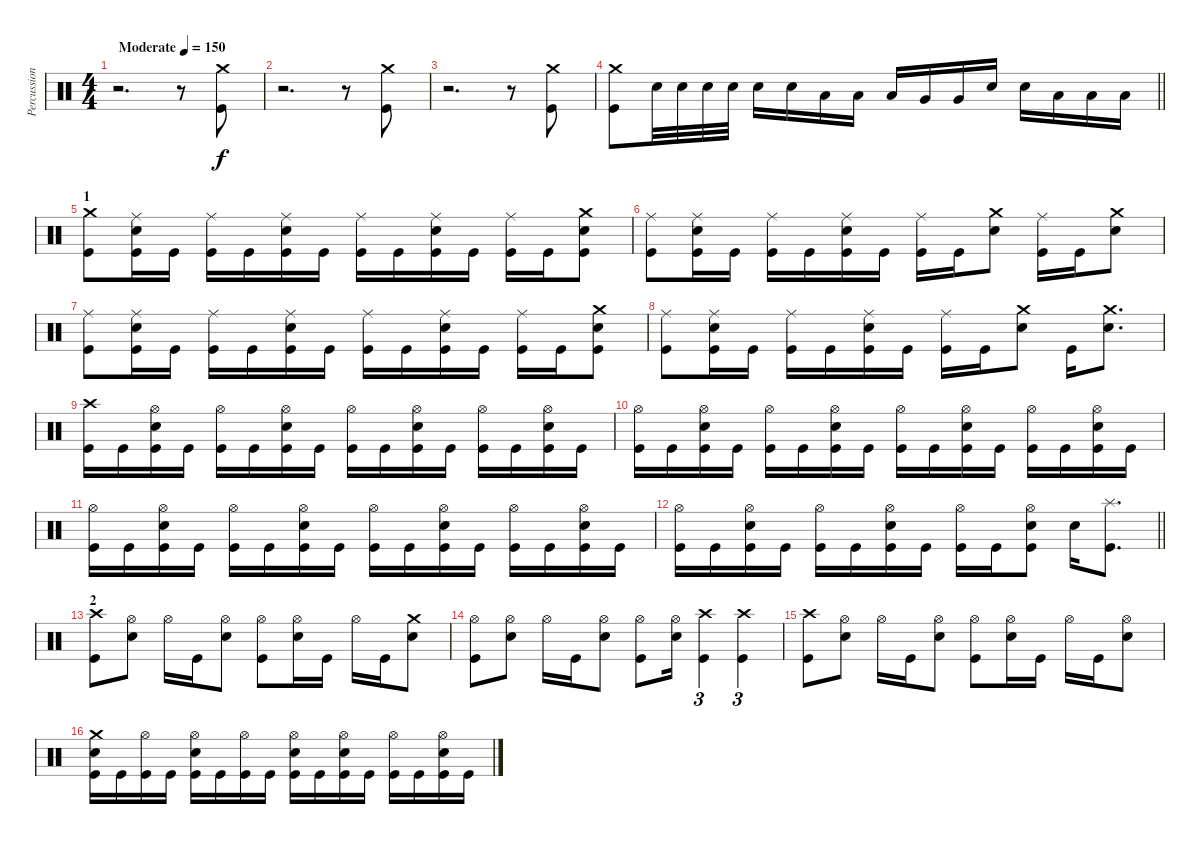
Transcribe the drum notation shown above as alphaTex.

\track ("Percussion" "Percussion") {instrument percussion}
\staff {score}
\articulation defaults
\ts (4 4)
\tempo (150 "Moderate")
\clef neutral
\ks c
r.2{d dy f} r.8 ("Crash medium (hit)" "Kick (hit)").8 |
r.2{d} r.8 ("Crash medium (hit)" "Kick (hit)").8 |
r.2{d} r.8 ("Crash medium (hit)" "Kick (hit)").8 |
\barLineRight lightlight
("Crash medium (hit)" "Kick (hit)").8 "Snare (hit) 2".32 "Snare (hit) 2".32 "Snare (hit) 2".32 "Snare (hit) 2".32 "Snare (hit) 2".16 "Snare (hit) 2".16 "Low Tom (hit)".16 "Low Tom (hit)".16 "Low Tom (hit)".16 "Very Low Tom (hit)".16 "Very Low Tom (hit)".16 "Snare (hit) 2".16 "Snare (hit) 2".16 "Low Floor Tom (hit)".16 "Low Floor Tom (hit)".16 "Low Floor Tom (hit)".16 |
\section ("" "1")
("Crash medium (hit)" "Kick (hit)").8 ("Ride (middle)" "Snare (hit) 2" "Kick (hit)").16 "Kick (hit)".16 ("Ride (middle)" "Kick (hit)").16 "Kick (hit)".16 ("Ride (middle)" "Snare (hit) 2" "Kick (hit)").16 "Kick (hit)".16 ("Ride (middle)" "Kick (hit)").16 "Kick (hit)".16 ("Ride (middle)" "Snare (hit) 2" "Kick (hit)").16 "Kick (hit)".16 ("Ride (middle)" "Kick (hit)").16 "Kick (hit)".16 ("Crash medium (hit)" "Snare (hit) 2" "Kick (hit)").8 |
("Ride (middle)" "Kick (hit)").8 ("Ride (middle)" "Snare (hit) 2" "Kick (hit)").16 "Kick (hit)".16 ("Ride (middle)" "Kick (hit)").16 "Kick (hit)".16 ("Ride (middle)" "Snare (hit) 2" "Kick (hit)").16 "Kick (hit)".16 ("Ride (middle)" "Kick (hit)").16 "Kick (hit)".16 ("Crash medium (hit)" "Snare (hit) 2").8 ("Ride (middle)" "Kick (hit)").16 "Kick (hit)".16 ("Crash medium (hit)" "Snare (hit) 2").8 |
("Ride (middle)" "Kick (hit)").8 ("Ride (middle)" "Snare (hit) 2" "Kick (hit)").16 "Kick (hit)".16 ("Ride (middle)" "Kick (hit)").16 "Kick (hit)".16 ("Ride (middle)" "Snare (hit) 2" "Kick (hit)").16 "Kick (hit)".16 ("Ride (middle)" "Kick (hit)").16 "Kick (hit)".16 ("Ride (middle)" "Snare (hit) 2" "Kick (hit)").16 "Kick (hit)".16 ("Ride (middle)" "Kick (hit)").16 "Kick (hit)".16 ("Crash medium (hit)" "Snare (hit) 2" "Kick (hit)").8 |
("Ride (middle)" "Kick (hit)").8 ("Ride (middle)" "Snare (hit) 2" "Kick (hit)").16 "Kick (hit)".16 ("Ride (middle)" "Kick (hit)").16 "Kick (hit)".16 ("Ride (middle)" "Snare (hit) 2" "Kick (hit)").16 "Kick (hit)".16 ("Ride (middle)" "Kick (hit)").16 "Kick (hit)".16 ("Crash medium (hit)" "Snare (hit) 2").8 "Kick (hit)".16 ("Crash medium (hit)" "Snare (hit) 2").8{d} |
("Crash high (hit)" "Kick (hit)").16 "Kick (hit)".16 ("Hi-Hat (open)" "Snare (hit) 2" "Kick (hit)").16 "Kick (hit)".16 ("Hi-Hat (open)" "Kick (hit)").16 "Kick (hit)".16 ("Hi-Hat (open)" "Snare (hit) 2" "Kick (hit)").16 "Kick (hit)".16 ("Hi-Hat (open)" "Kick (hit)").16 "Kick (hit)".16 ("Hi-Hat (open)" "Snare (hit) 2" "Kick (hit)").16 "Kick (hit)".16 ("Hi-Hat (open)" "Kick (hit)").16 "Kick (hit)".16 ("Hi-Hat (open)" "Snare (hit) 2" "Kick (hit)").16 "Kick (hit)".16 |
("Hi-Hat (open)" "Kick (hit)").16 "Kick (hit)".16 ("Hi-Hat (open)" "Snare (hit) 2" "Kick (hit)").16 "Kick (hit)".16 ("Hi-Hat (open)" "Kick (hit)").16 "Kick (hit)".16 ("Hi-Hat (open)" "Snare (hit) 2" "Kick (hit)").16 "Kick (hit)".16 ("Hi-Hat (open)" "Kick (hit)").16 "Kick (hit)".16 ("Hi-Hat (open)" "Snare (hit) 2" "Kick (hit)").16 "Kick (hit)".16 ("Hi-Hat (open)" "Kick (hit)").16 "Kick (hit)".16 ("Hi-Hat (open)" "Snare (hit) 2" "Kick (hit)").16 "Kick (hit)".16 |
("Hi-Hat (open)" "Kick (hit)").16 "Kick (hit)".16 ("Hi-Hat (open)" "Snare (hit) 2" "Kick (hit)").16 "Kick (hit)".16 ("Hi-Hat (open)" "Kick (hit)").16 "Kick (hit)".16 ("Hi-Hat (open)" "Snare (hit) 2" "Kick (hit)").16 "Kick (hit)".16 ("Hi-Hat (open)" "Kick (hit)").16 "Kick (hit)".16 ("Hi-Hat (open)" "Snare (hit) 2" "Kick (hit)").16 "Kick (hit)".16 ("Hi-Hat (open)" "Kick (hit)").16 "Kick (hit)".16 ("Hi-Hat (open)" "Snare (hit) 2" "Kick (hit)").16 "Kick (hit)".16 |
\barLineRight lightlight
("Hi-Hat (open)" "Kick (hit)").16 "Kick (hit)".16 ("Hi-Hat (open)" "Snare (hit) 2" "Kick (hit)").16 "Kick (hit)".16 ("Hi-Hat (open)" "Kick (hit)").16 "Kick (hit)".16 ("Hi-Hat (open)" "Snare (hit) 2" "Kick (hit)").16 "Kick (hit)".16 ("Hi-Hat (open)" "Kick (hit)").16 "Kick (hit)".16 ("Hi-Hat (open)" "Snare (hit) 2" "Kick (hit)").8 "Snare (hit) 2".16 ("Splash (hit)" "Kick (hit)").8{d} |
\section ("" "2")
("Crash high (hit)" "Kick (hit)").8 ("Hi-Hat (open)" "Snare (hit) 2").8 "Hi-Hat (open)".16 "Kick (hit)".16 ("Hi-Hat (open)" "Snare (hit) 2").8 ("Hi-Hat (open)" "Kick (hit)").8 ("Hi-Hat (open)" "Snare (hit) 2").16 "Kick (hit)".16 "Hi-Hat (open)".16 "Kick (hit)".16 ("Crash medium (hit)" "Snare (hit) 2").8 |
("Hi-Hat (open)" "Kick (hit)").8 ("Hi-Hat (open)" "Snare (hit) 2").8 "Hi-Hat (open)".16 "Kick (hit)".16 ("Hi-Hat (open)" "Snare (hit) 2").8 ("Hi-Hat (open)" "Kick (hit)").8 ("Hi-Hat (open)" "Snare (hit) 2").16 ("Crash high (hit)" "Kick (hit)").4{tu (3 2)} ("Crash high (hit)" "Kick (hit)").4{tu (3 2)} |
("Crash high (hit)" "Kick (hit)").8 ("Hi-Hat (open)" "Snare (hit) 2").8 "Hi-Hat (open)".16 "Kick (hit)".16 ("Hi-Hat (open)" "Snare (hit) 2").8 ("Hi-Hat (open)" "Kick (hit)").8 ("Hi-Hat (open)" "Snare (hit) 2").16 "Kick (hit)".16 "Hi-Hat (open)".16 "Kick (hit)".16 ("Hi-Hat (open)" "Snare (hit) 2").8 |
("Crash medium (hit)" "Snare (hit) 2" "Kick (hit)").16 "Kick (hit)".16 ("Hi-Hat (open)" "Kick (hit)").16 "Kick (hit)".16 ("Hi-Hat (open)" "Snare (hit) 2" "Kick (hit)").16 "Kick (hit)".16 ("Hi-Hat (open)" "Kick (hit)").16 "Kick (hit)".16 ("Hi-Hat (open)" "Snare (hit) 2" "Kick (hit)").16 "Kick (hit)".16 ("Hi-Hat (open)" "Snare (hit) 2" "Kick (hit)").16 "Kick (hit)".16 ("Hi-Hat (open)" "Kick (hit)").16 "Kick (hit)".16 ("Hi-Hat (open)" "Snare (hit) 2" "Kick (hit)").16 "Kick (hit)".16
